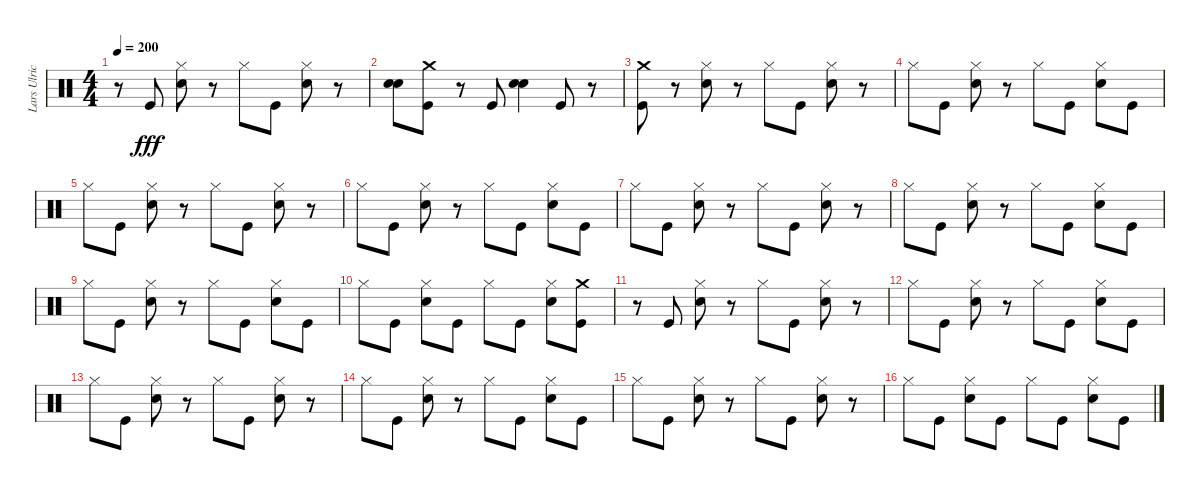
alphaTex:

\track ("Lars Ulrich" "Lars Ulric") {instrument percussion}
\staff {score}
\articulation defaults
\ts (4 4)
\tempo 200
\clef neutral
\ks c
r.8{dy fff} "Kick (hit)".8 ("Hi-Hat (closed)" "Snare (hit) 2").8 r.8 "Hi-Hat (closed)".8 "Kick (hit)".8 ("Hi-Hat (closed)" "Snare (hit) 2").8 r.8 |
("Snare (hit) 2" "Snare (hit) 2").8 ("Kick (hit)" "Crash medium (hit)").8 r.8 "Kick (hit)".8 ("Snare (hit) 2" "Snare (hit) 2").4 "Kick (hit)".8 r.8 |
("Crash medium (hit)" "Kick (hit)").8 r.8 ("Hi-Hat (closed)" "Snare (hit) 2").8 r.8 "Hi-Hat (closed)".8 "Kick (hit)".8 ("Hi-Hat (closed)" "Snare (hit) 2").8 r.8 |
"Hi-Hat (closed)".8 "Kick (hit)".8 ("Hi-Hat (closed)" "Snare (hit) 2").8 r.8 "Hi-Hat (closed)".8 "Kick (hit)".8 ("Hi-Hat (closed)" "Snare (hit) 2").8 "Kick (hit)".8 |
"Hi-Hat (closed)".8 "Kick (hit)".8 ("Hi-Hat (closed)" "Snare (hit) 2").8 r.8 "Hi-Hat (closed)".8 "Kick (hit)".8 ("Snare (hit) 2" "Hi-Hat (closed)").8 r.8 |
"Hi-Hat (closed)".8 "Kick (hit)".8 ("Hi-Hat (closed)" "Snare (hit) 2").8 r.8 "Hi-Hat (closed)".8 "Kick (hit)".8 ("Hi-Hat (closed)" "Snare (hit) 2").8 "Kick (hit)".8 |
"Hi-Hat (closed)".8 "Kick (hit)".8 ("Snare (hit) 2" "Hi-Hat (closed)").8 r.8 "Hi-Hat (closed)".8 "Kick (hit)".8 ("Hi-Hat (closed)" "Snare (hit) 2").8 r.8 |
"Hi-Hat (closed)".8 "Kick (hit)".8 ("Hi-Hat (closed)" "Snare (hit) 2").8 r.8 "Hi-Hat (closed)".8 "Kick (hit)".8 ("Hi-Hat (closed)" "Snare (hit) 2").8 "Kick (hit)".8 |
"Hi-Hat (closed)".8 "Kick (hit)".8 ("Hi-Hat (closed)" "Snare (hit) 2").8 r.8 "Hi-Hat (closed)".8 "Kick (hit)".8 ("Hi-Hat (closed)" "Snare (hit) 2").8 "Kick (hit)".8 |
"Hi-Hat (closed)".8 "Kick (hit)".8 ("Hi-Hat (closed)" "Snare (hit) 2").8 "Kick (hit)".8 "Hi-Hat (closed)".8 "Kick (hit)".8 ("Hi-Hat (closed)" "Snare (hit) 2").8 ("Crash medium (hit)" "Kick (hit)").8 |
r.8 "Kick (hit)".8 ("Hi-Hat (closed)" "Snare (hit) 2").8 r.8 "Hi-Hat (closed)".8 "Kick (hit)".8 ("Hi-Hat (closed)" "Snare (hit) 2").8 r.8 |
"Hi-Hat (closed)".8 "Kick (hit)".8 ("Hi-Hat (closed)" "Snare (hit) 2").8 r.8 "Hi-Hat (closed)".8 "Kick (hit)".8 ("Hi-Hat (closed)" "Snare (hit) 2").8 "Kick (hit)".8 |
"Hi-Hat (closed)".8 "Kick (hit)".8 ("Hi-Hat (closed)" "Snare (hit) 2").8 r.8 "Hi-Hat (closed)".8 "Kick (hit)".8 ("Hi-Hat (closed)" "Snare (hit) 2").8 r.8 |
"Hi-Hat (closed)".8 "Kick (hit)".8 ("Snare (hit) 2" "Hi-Hat (closed)").8 r.8 "Hi-Hat (closed)".8 "Kick (hit)".8 ("Hi-Hat (closed)" "Snare (hit) 2").8 "Kick (hit)".8 |
"Hi-Hat (closed)".8 "Kick (hit)".8 ("Hi-Hat (closed)" "Snare (hit) 2").8 r.8 "Hi-Hat (closed)".8 "Kick (hit)".8 ("Hi-Hat (closed)" "Snare (hit) 2").8 r.8 |
"Hi-Hat (closed)".8 "Kick (hit)".8 ("Hi-Hat (closed)" "Snare (hit) 2").8 "Kick (hit)".8 "Hi-Hat (closed)".8 "Kick (hit)".8 ("Hi-Hat (closed)" "Snare (hit) 2").8 "Kick (hit)".8
